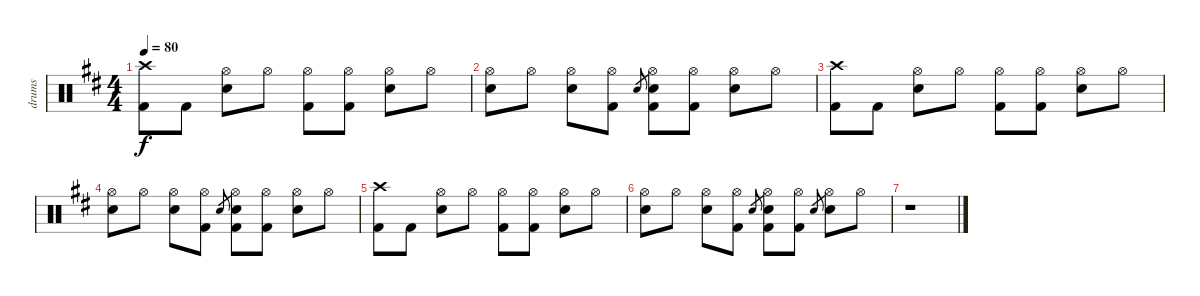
\track ("drums" "drums") {instrument percussion}
\staff {score}
\articulation defaults
\ts (4 4)
\tempo 80
\clef neutral
\ks bminor
("Crash high (hit)" "Kick (hit) 2").8{dy f} "Kick (hit) 2".8 ("Hi-Hat (open)" "Electric Snare (hit)").8 "Hi-Hat (open)".8 ("Hi-Hat (open)" "Kick (hit) 2").8 ("Hi-Hat (open)" "Kick (hit) 2").8 ("Hi-Hat (open)" "Electric Snare (hit)").8 "Hi-Hat (open)".8 |
("Hi-Hat (open)" "Electric Snare (hit)").8 "Hi-Hat (open)".8 ("Hi-Hat (open)" "Electric Snare (hit)").8 ("Hi-Hat (open)" "Kick (hit) 2").8 "Electric Snare (hit)".8{gr} ("Hi-Hat (open)" "Electric Snare (hit)" "Kick (hit) 2").8 ("Hi-Hat (open)" "Kick (hit) 2").8 ("Hi-Hat (open)" "Electric Snare (hit)").8 "Hi-Hat (open)".8 |
("Crash high (hit)" "Kick (hit) 2").8 "Kick (hit) 2".8 ("Hi-Hat (open)" "Electric Snare (hit)").8 "Hi-Hat (open)".8 ("Hi-Hat (open)" "Kick (hit) 2").8 ("Hi-Hat (open)" "Kick (hit) 2").8 ("Hi-Hat (open)" "Electric Snare (hit)").8 "Hi-Hat (open)".8 |
("Hi-Hat (open)" "Electric Snare (hit)").8 "Hi-Hat (open)".8 ("Hi-Hat (open)" "Electric Snare (hit)").8 ("Hi-Hat (open)" "Kick (hit) 2").8 "Electric Snare (hit)".8{gr} ("Hi-Hat (open)" "Electric Snare (hit)" "Kick (hit) 2").8 ("Hi-Hat (open)" "Kick (hit) 2").8 ("Hi-Hat (open)" "Electric Snare (hit)").8 "Hi-Hat (open)".8 |
("Crash high (hit)" "Kick (hit) 2").8 "Kick (hit) 2".8 ("Hi-Hat (open)" "Electric Snare (hit)").8 "Hi-Hat (open)".8 ("Hi-Hat (open)" "Kick (hit) 2").8 ("Hi-Hat (open)" "Kick (hit) 2").8 ("Hi-Hat (open)" "Electric Snare (hit)").8 "Hi-Hat (open)".8 |
("Hi-Hat (open)" "Electric Snare (hit)").8 "Hi-Hat (open)".8 ("Hi-Hat (open)" "Electric Snare (hit)").8 ("Hi-Hat (open)" "Kick (hit) 2").8 "Electric Snare (hit)".8{gr} ("Hi-Hat (open)" "Electric Snare (hit)" "Kick (hit) 2").8 ("Hi-Hat (open)" "Kick (hit) 2").8 "Electric Snare (hit)".8{gr} ("Hi-Hat (open)" "Electric Snare (hit)").8 "Hi-Hat (open)".8 |
r.1
